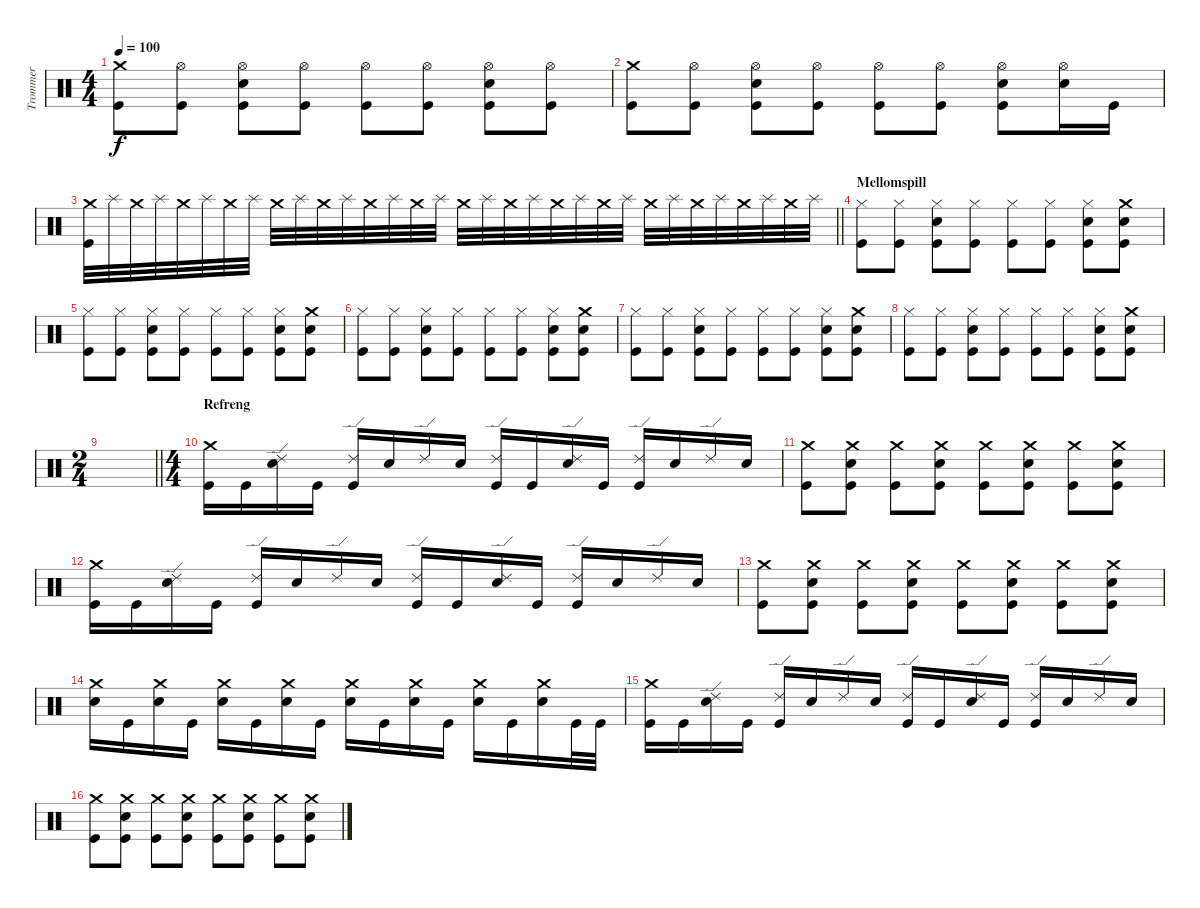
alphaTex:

\track ("Trommer" "Trommer") {instrument percussion}
\staff {score}
\articulation defaults
\ts (4 4)
\tempo 100
\clef neutral
\ks c
("Crash medium (hit)" "Kick (hit)").8{dy f} ("Hi-Hat (open)" "Kick (hit)").8 ("Hi-Hat (open)" "Snare (hit) 2" "Kick (hit)").8 ("Hi-Hat (open)" "Kick (hit)").8 ("Hi-Hat (open)" "Kick (hit)").8 ("Hi-Hat (open)" "Kick (hit)").8 ("Hi-Hat (open)" "Snare (hit) 2" "Kick (hit)").8 ("Hi-Hat (open)" "Kick (hit)").8 |
("Crash medium (hit)" "Kick (hit)").8 ("Hi-Hat (open)" "Kick (hit)").8 ("Hi-Hat (open)" "Snare (hit) 2" "Kick (hit)").8 ("Hi-Hat (open)" "Kick (hit)").8 ("Hi-Hat (open)" "Kick (hit)").8 ("Hi-Hat (open)" "Kick (hit)").8 ("Hi-Hat (open)" "Snare (hit) 2" "Kick (hit)").8 ("Hi-Hat (open)" "Snare (hit) 2").16 "Kick (hit)".16 |
\barLineRight lightlight
("Crash medium (hit)" "Kick (hit)").32 "Splash (hit)".32 "Crash medium (hit)".32 "Splash (hit)".32 "Crash medium (hit)".32 "Splash (hit)".32 "Crash medium (hit)".32 "Splash (hit)".32 "Crash medium (hit)".32 "Splash (hit)".32 "Crash medium (hit)".32 "Splash (hit)".32 "Crash medium (hit)".32 "Splash (hit)".32 "Crash medium (hit)".32 "Splash (hit)".32 "Crash medium (hit)".32 "Splash (hit)".32 "Crash medium (hit)".32 "Splash (hit)".32 "Crash medium (hit)".32 "Splash (hit)".32 "Crash medium (hit)".32 "Splash (hit)".32 "Crash medium (hit)".32 "Splash (hit)".32 "Crash medium (hit)".32 "Splash (hit)".32 "Crash medium (hit)".32 "Splash (hit)".32 "Crash medium (hit)".32 "Splash (hit)".32 |
\section ("" "Mellomspill")
("Hi-Hat (closed)" "Kick (hit)").8 ("Hi-Hat (closed)" "Kick (hit)").8 ("Hi-Hat (closed)" "Snare (hit) 2" "Kick (hit)").8 ("Hi-Hat (closed)" "Kick (hit)").8 ("Hi-Hat (closed)" "Kick (hit)").8 ("Hi-Hat (closed)" "Kick (hit)").8 ("Hi-Hat (closed)" "Snare (hit) 2" "Kick (hit)").8 ("Crash medium (hit)" "Snare (hit) 2" "Kick (hit)").8 |
("Hi-Hat (closed)" "Kick (hit)").8 ("Hi-Hat (closed)" "Kick (hit)").8 ("Hi-Hat (closed)" "Snare (hit) 2" "Kick (hit)").8 ("Hi-Hat (closed)" "Kick (hit)").8 ("Hi-Hat (closed)" "Kick (hit)").8 ("Hi-Hat (closed)" "Kick (hit)").8 ("Hi-Hat (closed)" "Snare (hit) 2" "Kick (hit)").8 ("Crash medium (hit)" "Snare (hit) 2" "Kick (hit)").8 |
("Hi-Hat (closed)" "Kick (hit)").8 ("Hi-Hat (closed)" "Kick (hit)").8 ("Hi-Hat (closed)" "Snare (hit) 2" "Kick (hit)").8 ("Hi-Hat (closed)" "Kick (hit)").8 ("Hi-Hat (closed)" "Kick (hit)").8 ("Hi-Hat (closed)" "Kick (hit)").8 ("Hi-Hat (closed)" "Snare (hit) 2" "Kick (hit)").8 ("Crash medium (hit)" "Snare (hit) 2" "Kick (hit)").8 |
("Hi-Hat (closed)" "Kick (hit)").8 ("Hi-Hat (closed)" "Kick (hit)").8 ("Hi-Hat (closed)" "Snare (hit) 2" "Kick (hit)").8 ("Hi-Hat (closed)" "Kick (hit)").8 ("Hi-Hat (closed)" "Kick (hit)").8 ("Hi-Hat (closed)" "Kick (hit)").8 ("Hi-Hat (closed)" "Snare (hit) 2" "Kick (hit)").8 ("Crash medium (hit)" "Snare (hit) 2" "Kick (hit)").8 |
("Hi-Hat (closed)" "Kick (hit)").8 ("Hi-Hat (closed)" "Kick (hit)").8 ("Hi-Hat (closed)" "Snare (hit) 2" "Kick (hit)").8 ("Hi-Hat (closed)" "Kick (hit)").8 ("Hi-Hat (closed)" "Kick (hit)").8 ("Hi-Hat (closed)" "Kick (hit)").8 ("Hi-Hat (closed)" "Snare (hit) 2" "Kick (hit)").8 ("Crash medium (hit)" "Snare (hit) 2" "Kick (hit)").8 |
\ts (2 4)
\barLineRight lightlight
|
\ts (4 4)
\section ("" "Refreng")
("Crash medium (hit)" "Kick (hit)").16 "Kick (hit)".16 ("Ride (edge) 2" "Snare (hit) 2").16 "Kick (hit)".16 ("Ride (edge) 2" "Kick (hit)").16 "Snare (hit) 2".16 "Ride (edge) 2".16 "Snare (hit) 2".16 ("Ride (edge) 2" "Kick (hit)").16 "Kick (hit)".16 ("Ride (edge) 2" "Snare (hit) 2").16 "Kick (hit)".16 ("Ride (edge) 2" "Kick (hit)").16 "Snare (hit) 2".16 "Ride (edge) 2".16 "Snare (hit) 2".16 |
("Crash medium (hit)" "Kick (hit)").8 ("Crash medium (hit)" "Snare (hit) 2" "Kick (hit)").8 ("Crash medium (hit)" "Kick (hit)").8 ("Crash medium (hit)" "Snare (hit) 2" "Kick (hit)").8 ("Crash medium (hit)" "Kick (hit)").8 ("Crash medium (hit)" "Snare (hit) 2" "Kick (hit)").8 ("Crash medium (hit)" "Kick (hit)").8 ("Crash medium (hit)" "Snare (hit) 2" "Kick (hit)").8 |
("Crash medium (hit)" "Kick (hit)").16 "Kick (hit)".16 ("Ride (edge) 2" "Snare (hit) 2").16 "Kick (hit)".16 ("Ride (edge) 2" "Kick (hit)").16 "Snare (hit) 2".16 "Ride (edge) 2".16 "Snare (hit) 2".16 ("Ride (edge) 2" "Kick (hit)").16 "Kick (hit)".16 ("Ride (edge) 2" "Snare (hit) 2").16 "Kick (hit)".16 ("Ride (edge) 2" "Kick (hit)").16 "Snare (hit) 2".16 "Ride (edge) 2".16 "Snare (hit) 2".16 |
("Crash medium (hit)" "Kick (hit)").8 ("Crash medium (hit)" "Snare (hit) 2" "Kick (hit)").8 ("Crash medium (hit)" "Kick (hit)").8 ("Crash medium (hit)" "Snare (hit) 2" "Kick (hit)").8 ("Crash medium (hit)" "Kick (hit)").8 ("Crash medium (hit)" "Snare (hit) 2" "Kick (hit)").8 ("Crash medium (hit)" "Kick (hit)").8 ("Crash medium (hit)" "Snare (hit) 2" "Kick (hit)").8 |
("Crash medium (hit)" "Snare (hit) 2").16 "Kick (hit)".16 ("Crash medium (hit)" "Snare (hit) 2").16 "Kick (hit)".16 ("Crash medium (hit)" "Snare (hit) 2").16 "Kick (hit)".16 ("Crash medium (hit)" "Snare (hit) 2").16 "Kick (hit)".16 ("Crash medium (hit)" "Snare (hit) 2").16 "Kick (hit)".16 ("Crash medium (hit)" "Snare (hit) 2").16 "Kick (hit)".16 ("Crash medium (hit)" "Snare (hit) 2").16 "Kick (hit)".16 ("Crash medium (hit)" "Snare (hit) 2").16 "Kick (hit)".32 "Kick (hit)".32 |
("Crash medium (hit)" "Kick (hit)").16 "Kick (hit)".16 ("Ride (edge) 2" "Snare (hit) 2").16 "Kick (hit)".16 ("Ride (edge) 2" "Kick (hit)").16 "Snare (hit) 2".16 "Ride (edge) 2".16 "Snare (hit) 2".16 ("Ride (edge) 2" "Kick (hit)").16 "Kick (hit)".16 ("Ride (edge) 2" "Snare (hit) 2").16 "Kick (hit)".16 ("Ride (edge) 2" "Kick (hit)").16 "Snare (hit) 2".16 "Ride (edge) 2".16 "Snare (hit) 2".16 |
("Crash medium (hit)" "Kick (hit)").8 ("Crash medium (hit)" "Snare (hit) 2" "Kick (hit)").8 ("Crash medium (hit)" "Kick (hit)").8 ("Crash medium (hit)" "Snare (hit) 2" "Kick (hit)").8 ("Crash medium (hit)" "Kick (hit)").8 ("Crash medium (hit)" "Snare (hit) 2" "Kick (hit)").8 ("Crash medium (hit)" "Kick (hit)").8 ("Crash medium (hit)" "Snare (hit) 2" "Kick (hit)").8
